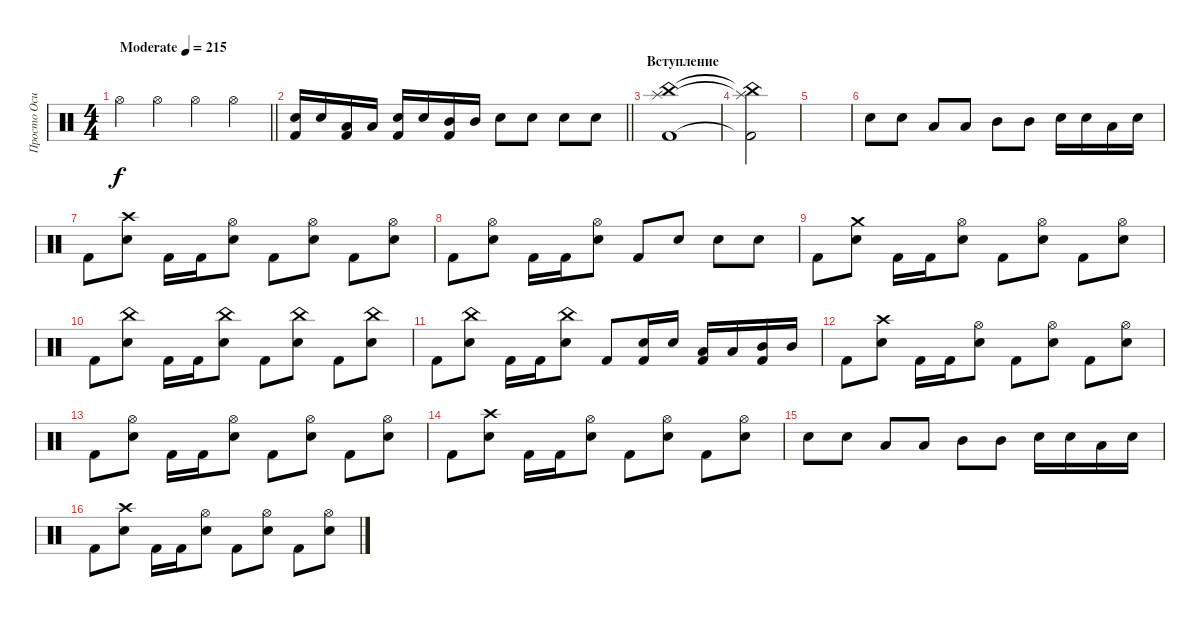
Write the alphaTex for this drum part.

\track ("Просто Осип" "Просто Оси") {instrument percussion}
\staff {score}
\articulation defaults
\ts (4 4)
\tempo (215 "Moderate")
\clef neutral
\barLineRight lightlight
\ks c "Hi-Hat (open)".4{dy f} "Hi-Hat (open)".4 "Hi-Hat (open)".4 "Hi-Hat (open)".4
|
\barLineRight lightlight
("Kick (hit) 2" "Electric Snare (hit)").16 "Electric Snare (hit)".16 ("Kick (hit) 2" "Low Tom (hit)").16 "Low Tom (hit)".16 ("Kick (hit) 2" "Electric Snare (hit)").16 "Electric Snare (hit)".16 ("Kick (hit) 2" "Mid Tom (hit)").16 "Mid Tom (hit)".16 "Electric Snare (hit)".8 "Electric Snare (hit)".8 "Electric Snare (hit)".8 "Electric Snare (hit)".8 |
\section ("" "Вступление ")
("Kick (hit) 2" "China (hit)" "Splash (hit)").1 |
("Kick (hit) 2"{t} "China (hit)"{t} "Splash (hit)"{t}).2 |
|
"Electric Snare (hit)".8 "Electric Snare (hit)".8 "Low Tom (hit)".8 "Low Tom (hit)".8 "Mid Tom (hit)".8 "Mid Tom (hit)".8 "Electric Snare (hit)".16 "Electric Snare (hit)".16 "Low Tom (hit)".16 "Electric Snare (hit)".16 |
"Kick (hit) 2".8 ("Electric Snare (hit)" "Crash high (hit)").8 "Kick (hit) 2".16 "Kick (hit) 2".16 ("Electric Snare (hit)" "Hi-Hat (open)").8 "Kick (hit) 2".8 ("Electric Snare (hit)" "Hi-Hat (open)").8 "Kick (hit) 2".8 ("Electric Snare (hit)" "Hi-Hat (open)").8 |
"Kick (hit) 2".8 ("Electric Snare (hit)" "Hi-Hat (open)").8 "Kick (hit) 2".16 "Kick (hit) 2".16 ("Electric Snare (hit)" "Hi-Hat (open)").8 "Kick (hit) 2".8 "Electric Snare (hit)".8 "Electric Snare (hit)".8 "Electric Snare (hit)".8 |
"Kick (hit) 2".8 ("Electric Snare (hit)" "Crash medium (hit)").8 "Kick (hit) 2".16 "Kick (hit) 2".16 ("Electric Snare (hit)" "Hi-Hat (open)").8 "Kick (hit) 2".8 ("Electric Snare (hit)" "Hi-Hat (open)").8 "Kick (hit) 2".8 ("Electric Snare (hit)" "Hi-Hat (open)").8 |
"Kick (hit) 2".8 ("Electric Snare (hit)" "China (hit)").8 "Kick (hit) 2".16 "Kick (hit) 2".16 ("Electric Snare (hit)" "China (hit)").8 "Kick (hit) 2".8 ("Electric Snare (hit)" "China (hit)").8 "Kick (hit) 2".8 ("Electric Snare (hit)" "China (hit)").8 |
"Kick (hit) 2".8 ("Electric Snare (hit)" "China (hit)").8 "Kick (hit) 2".16 "Kick (hit) 2".16 ("Electric Snare (hit)" "China (hit)").8 "Kick (hit) 2".8 ("Kick (hit) 2" "Electric Snare (hit)").16 "Electric Snare (hit)".16 ("Kick (hit) 2" "Low Tom (hit)").16 "Low Tom (hit)".16 ("Kick (hit) 2" "Mid Tom (hit)").16 "Mid Tom (hit)".16 |
"Kick (hit) 2".8 ("Electric Snare (hit)" "Crash high (hit)").8 "Kick (hit) 2".16 "Kick (hit) 2".16 ("Electric Snare (hit)" "Hi-Hat (open)").8 "Kick (hit) 2".8 ("Electric Snare (hit)" "Hi-Hat (open)").8 "Kick (hit) 2".8 ("Electric Snare (hit)" "Hi-Hat (open)").8 |
"Kick (hit) 2".8 ("Electric Snare (hit)" "Hi-Hat (open)").8 "Kick (hit) 2".16 "Kick (hit) 2".16 ("Electric Snare (hit)" "Hi-Hat (open)").8 "Kick (hit) 2".8 ("Electric Snare (hit)" "Hi-Hat (open)").8 "Kick (hit) 2".8 ("Electric Snare (hit)" "Hi-Hat (open)").8 |
"Kick (hit) 2".8 ("Electric Snare (hit)" "Crash high (hit)").8 "Kick (hit) 2".16 "Kick (hit) 2".16 ("Electric Snare (hit)" "Hi-Hat (open)").8 "Kick (hit) 2".8 ("Electric Snare (hit)" "Hi-Hat (open)").8 "Kick (hit) 2".8 ("Electric Snare (hit)" "Hi-Hat (open)").8 |
"Electric Snare (hit)".8 "Electric Snare (hit)".8 "Low Tom (hit)".8 "Low Tom (hit)".8 "Mid Tom (hit)".8 "Mid Tom (hit)".8 "Electric Snare (hit)".16 "Electric Snare (hit)".16 "Low Tom (hit)".16 "Electric Snare (hit)".16 |
"Kick (hit) 2".8 ("Electric Snare (hit)" "Crash high (hit)").8 "Kick (hit) 2".16 "Kick (hit) 2".16 ("Electric Snare (hit)" "Hi-Hat (open)").8 "Kick (hit) 2".8 ("Electric Snare (hit)" "Hi-Hat (open)").8 "Kick (hit) 2".8 ("Electric Snare (hit)" "Hi-Hat (open)").8
